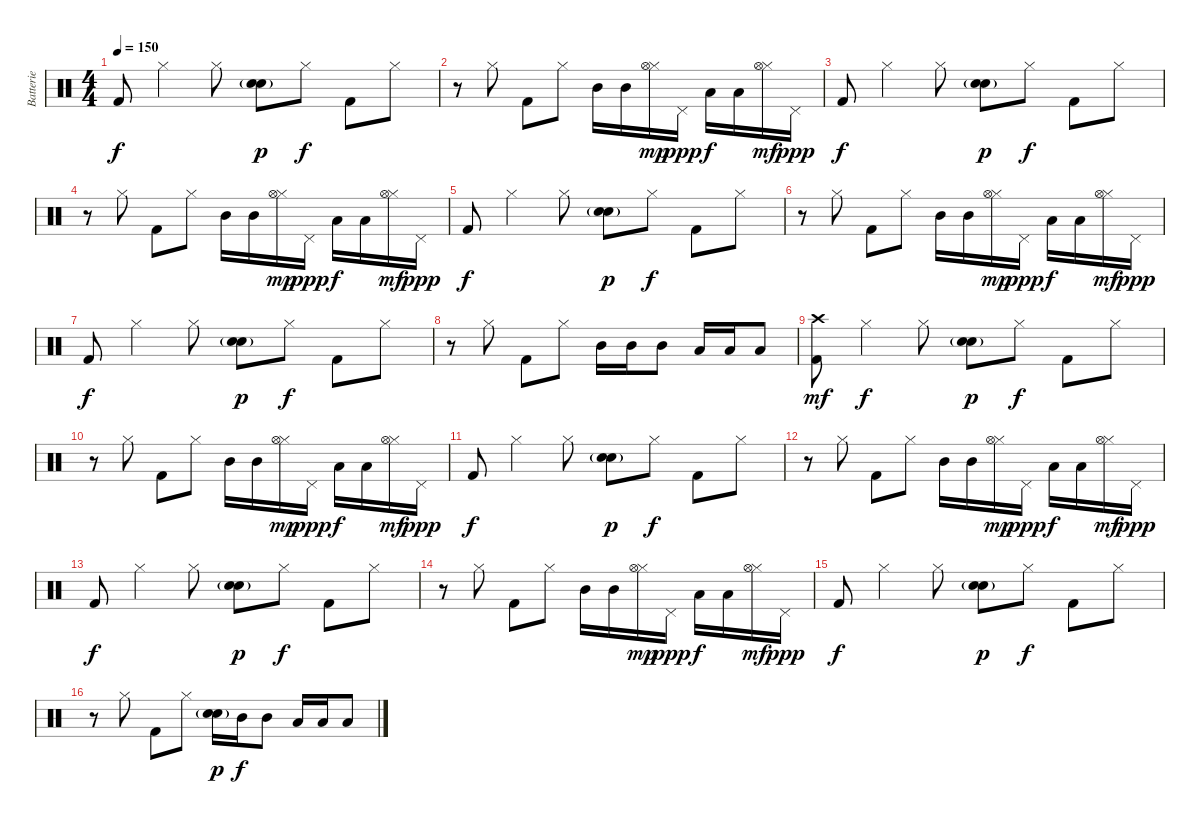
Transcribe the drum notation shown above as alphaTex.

\track ("Batterie" "Batterie") {instrument percussion}
\staff {score}
\articulation defaults
\ts (4 4)
\tempo 150
\clef neutral
\ks c "Kick (hit) 2".8{dy f} "Hi-Hat (closed)".4 "Hi-Hat (closed)".8
("Electric Snare (hit)" "Snare (hit) 2"{g}).8{dy p} "Hi-Hat (closed)".8{dy f} "Kick (hit) 2".8 "Hi-Hat (closed)".8 |
r.8 "Hi-Hat (closed)".8 "Kick (hit) 2".8 "Hi-Hat (closed)".8 "Mid Tom (hit)".16 "Mid Tom (hit)".16 ("Hi-Hat (closed)" "Hi-Hat (open)").16{dy mp} "Pedal Hi-Hat (hit)".16{dy ppp} "Low Tom (hit)".16{dy f} "Low Tom (hit)".16 ("Hi-Hat (closed)" "Hi-Hat (open)").16{dy mf} "Pedal Hi-Hat (hit)".16{dy ppp} |
"Kick (hit) 2".8{dy f} "Hi-Hat (closed)".4 "Hi-Hat (closed)".8 ("Electric Snare (hit)" "Snare (hit) 2"{g}).8{dy p} "Hi-Hat (closed)".8{dy f} "Kick (hit) 2".8 "Hi-Hat (closed)".8 |
r.8 "Hi-Hat (closed)".8 "Kick (hit) 2".8 "Hi-Hat (closed)".8 "Mid Tom (hit)".16 "Mid Tom (hit)".16 ("Hi-Hat (closed)" "Hi-Hat (open)").16{dy mp} "Pedal Hi-Hat (hit)".16{dy ppp} "Low Tom (hit)".16{dy f} "Low Tom (hit)".16 ("Hi-Hat (closed)" "Hi-Hat (open)").16{dy mf} "Pedal Hi-Hat (hit)".16{dy ppp} |
"Kick (hit) 2".8{dy f} "Hi-Hat (closed)".4 "Hi-Hat (closed)".8 ("Electric Snare (hit)" "Snare (hit) 2"{g}).8{dy p} "Hi-Hat (closed)".8{dy f} "Kick (hit) 2".8 "Hi-Hat (closed)".8 |
r.8 "Hi-Hat (closed)".8 "Kick (hit) 2".8 "Hi-Hat (closed)".8 "Mid Tom (hit)".16 "Mid Tom (hit)".16 ("Hi-Hat (closed)" "Hi-Hat (open)").16{dy mp} "Pedal Hi-Hat (hit)".16{dy ppp} "Low Tom (hit)".16{dy f} "Low Tom (hit)".16 ("Hi-Hat (closed)" "Hi-Hat (open)").16{dy mf} "Pedal Hi-Hat (hit)".16{dy ppp} |
"Kick (hit) 2".8{dy f} "Hi-Hat (closed)".4 "Hi-Hat (closed)".8 ("Electric Snare (hit)" "Snare (hit) 2"{g}).8{dy p} "Hi-Hat (closed)".8{dy f} "Kick (hit) 2".8 "Hi-Hat (closed)".8 |
r.8 "Hi-Hat (closed)".8 "Kick (hit) 2".8 "Hi-Hat (closed)".8 "Mid Tom (hit)".16 "Mid Tom (hit)".16 "Mid Tom (hit)".8 "Low Tom (hit)".16 "Low Tom (hit)".16 "Low Tom (hit)".8 |
("Crash high (hit)" "Kick (hit) 2").8{dy mf} "Hi-Hat (closed)".4{dy f} "Hi-Hat (closed)".8 ("Electric Snare (hit)" "Snare (hit) 2"{g}).8{dy p} "Hi-Hat (closed)".8{dy f} "Kick (hit) 2".8 "Hi-Hat (closed)".8 |
r.8 "Hi-Hat (closed)".8 "Kick (hit) 2".8 "Hi-Hat (closed)".8 "Mid Tom (hit)".16 "Mid Tom (hit)".16 ("Hi-Hat (closed)" "Hi-Hat (open)").16{dy mp} "Pedal Hi-Hat (hit)".16{dy ppp} "Low Tom (hit)".16{dy f} "Low Tom (hit)".16 ("Hi-Hat (closed)" "Hi-Hat (open)").16{dy mf} "Pedal Hi-Hat (hit)".16{dy ppp} |
"Kick (hit) 2".8{dy f} "Hi-Hat (closed)".4 "Hi-Hat (closed)".8 ("Electric Snare (hit)" "Snare (hit) 2"{g}).8{dy p} "Hi-Hat (closed)".8{dy f} "Kick (hit) 2".8 "Hi-Hat (closed)".8 |
r.8 "Hi-Hat (closed)".8 "Kick (hit) 2".8 "Hi-Hat (closed)".8 "Mid Tom (hit)".16 "Mid Tom (hit)".16 ("Hi-Hat (closed)" "Hi-Hat (open)").16{dy mp} "Pedal Hi-Hat (hit)".16{dy ppp} "Low Tom (hit)".16{dy f} "Low Tom (hit)".16 ("Hi-Hat (closed)" "Hi-Hat (open)").16{dy mf} "Pedal Hi-Hat (hit)".16{dy ppp} |
"Kick (hit) 2".8{dy f} "Hi-Hat (closed)".4 "Hi-Hat (closed)".8 ("Electric Snare (hit)" "Snare (hit) 2"{g}).8{dy p} "Hi-Hat (closed)".8{dy f} "Kick (hit) 2".8 "Hi-Hat (closed)".8 |
r.8 "Hi-Hat (closed)".8 "Kick (hit) 2".8 "Hi-Hat (closed)".8 "Mid Tom (hit)".16 "Mid Tom (hit)".16 ("Hi-Hat (closed)" "Hi-Hat (open)").16{dy mp} "Pedal Hi-Hat (hit)".16{dy ppp} "Low Tom (hit)".16{dy f} "Low Tom (hit)".16 ("Hi-Hat (closed)" "Hi-Hat (open)").16{dy mf} "Pedal Hi-Hat (hit)".16{dy ppp} |
"Kick (hit) 2".8{dy f} "Hi-Hat (closed)".4 "Hi-Hat (closed)".8 ("Electric Snare (hit)" "Snare (hit) 2"{g}).8{dy p} "Hi-Hat (closed)".8{dy f} "Kick (hit) 2".8 "Hi-Hat (closed)".8 |
r.8 "Hi-Hat (closed)".8 "Kick (hit) 2".8 "Hi-Hat (closed)".8 ("Electric Snare (hit)" "Snare (hit) 2"{g}).16{dy p} "Mid Tom (hit)".16{dy f} "Mid Tom (hit)".8 "Low Tom (hit)".16 "Low Tom (hit)".16 "Low Tom (hit)".8
